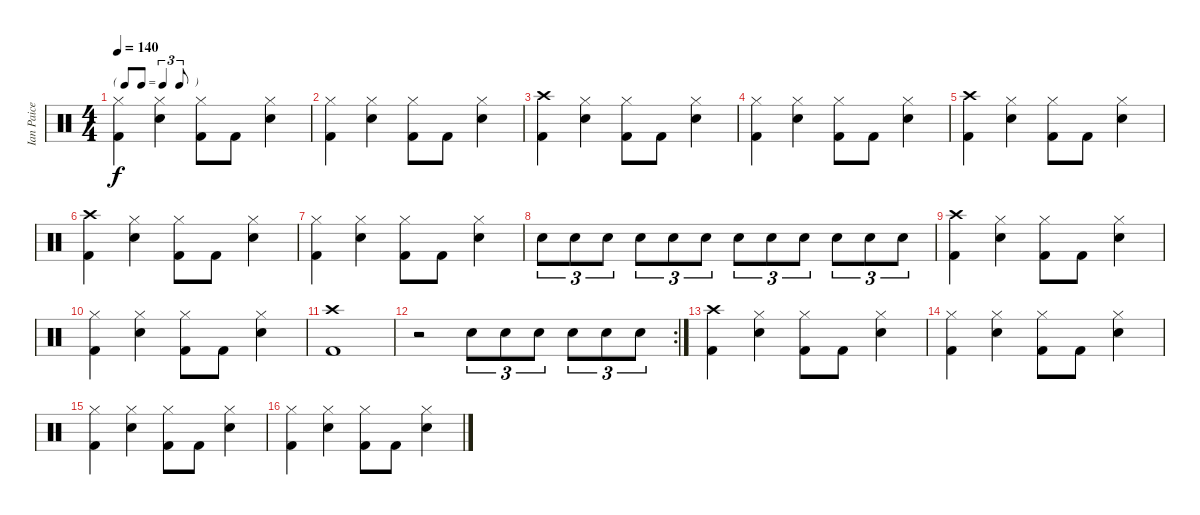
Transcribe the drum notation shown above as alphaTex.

\track ("Ian Paice" "Ian Paice") {instrument percussion}
\staff {score}
\articulation defaults
\ts (4 4)
\tf triplet8th
\tempo 140
\clef neutral
\ks c
("Hi-Hat (closed)" "Kick (hit) 2").4{dy f} ("Hi-Hat (closed)" "Electric Snare (hit)").4 ("Hi-Hat (closed)" "Kick (hit) 2").8 "Kick (hit) 2".8 ("Hi-Hat (closed)" "Electric Snare (hit)").4 |
("Hi-Hat (closed)" "Kick (hit) 2").4 ("Hi-Hat (closed)" "Electric Snare (hit)").4 ("Hi-Hat (closed)" "Kick (hit) 2").8 "Kick (hit) 2".8 ("Hi-Hat (closed)" "Electric Snare (hit)").4 |
("Crash high (hit)" "Kick (hit) 2").4 ("Hi-Hat (closed)" "Electric Snare (hit)").4 ("Hi-Hat (closed)" "Kick (hit) 2").8 "Kick (hit) 2".8 ("Hi-Hat (closed)" "Electric Snare (hit)").4 |
("Hi-Hat (closed)" "Kick (hit) 2").4 ("Hi-Hat (closed)" "Electric Snare (hit)").4 ("Hi-Hat (closed)" "Kick (hit) 2").8 "Kick (hit) 2".8 ("Hi-Hat (closed)" "Electric Snare (hit)").4 |
("Crash high (hit)" "Kick (hit) 2").4 ("Hi-Hat (closed)" "Electric Snare (hit)").4 ("Hi-Hat (closed)" "Kick (hit) 2").8 "Kick (hit) 2".8 ("Hi-Hat (closed)" "Electric Snare (hit)").4 |
("Crash high (hit)" "Kick (hit) 2").4 ("Hi-Hat (closed)" "Electric Snare (hit)").4 ("Hi-Hat (closed)" "Kick (hit) 2").8 "Kick (hit) 2".8 ("Hi-Hat (closed)" "Electric Snare (hit)").4 |
("Hi-Hat (closed)" "Kick (hit) 2").4 ("Hi-Hat (closed)" "Electric Snare (hit)").4 ("Hi-Hat (closed)" "Kick (hit) 2").8 "Kick (hit) 2".8 ("Hi-Hat (closed)" "Electric Snare (hit)").4 |
"Electric Snare (hit)".8{tu (3 2)} "Electric Snare (hit)".8{tu (3 2)} "Electric Snare (hit)".8{tu (3 2)} "Electric Snare (hit)".8{tu (3 2)} "Electric Snare (hit)".8{tu (3 2)} "Electric Snare (hit)".8{tu (3 2)} "Electric Snare (hit)".8{tu (3 2)} "Electric Snare (hit)".8{tu (3 2)} "Electric Snare (hit)".8{tu (3 2)} "Electric Snare (hit)".8{tu (3 2)} "Electric Snare (hit)".8{tu (3 2)} "Electric Snare (hit)".8{tu (3 2)} |
("Crash high (hit)" "Kick (hit) 2").4 ("Hi-Hat (closed)" "Electric Snare (hit)").4 ("Hi-Hat (closed)" "Kick (hit) 2").8 "Kick (hit) 2".8 ("Hi-Hat (closed)" "Electric Snare (hit)").4 |
("Hi-Hat (closed)" "Kick (hit) 2").4 ("Hi-Hat (closed)" "Electric Snare (hit)").4 ("Hi-Hat (closed)" "Kick (hit) 2").8 "Kick (hit) 2".8 ("Hi-Hat (closed)" "Electric Snare (hit)").4 |
("Crash high (hit)" "Kick (hit) 2").1 |
\rc 2
r.2 "Electric Snare (hit)".8{tu (3 2)} "Electric Snare (hit)".8{tu (3 2)} "Electric Snare (hit)".8{tu (3 2)} "Electric Snare (hit)".8{tu (3 2)} "Electric Snare (hit)".8{tu (3 2)} "Electric Snare (hit)".8{tu (3 2)} |
("Crash high (hit)" "Kick (hit) 2").4 ("Hi-Hat (closed)" "Electric Snare (hit)").4 ("Hi-Hat (closed)" "Kick (hit) 2").8 "Kick (hit) 2".8 ("Hi-Hat (closed)" "Electric Snare (hit)").4 |
("Hi-Hat (closed)" "Kick (hit) 2").4 ("Hi-Hat (closed)" "Electric Snare (hit)").4 ("Hi-Hat (closed)" "Kick (hit) 2").8 "Kick (hit) 2".8 ("Hi-Hat (closed)" "Electric Snare (hit)").4 |
("Hi-Hat (closed)" "Kick (hit) 2").4 ("Hi-Hat (closed)" "Electric Snare (hit)").4 ("Hi-Hat (closed)" "Kick (hit) 2").8 "Kick (hit) 2".8 ("Hi-Hat (closed)" "Electric Snare (hit)").4 |
("Hi-Hat (closed)" "Kick (hit) 2").4 ("Hi-Hat (closed)" "Electric Snare (hit)").4 ("Hi-Hat (closed)" "Kick (hit) 2").8 "Kick (hit) 2".8 ("Hi-Hat (closed)" "Electric Snare (hit)").4
